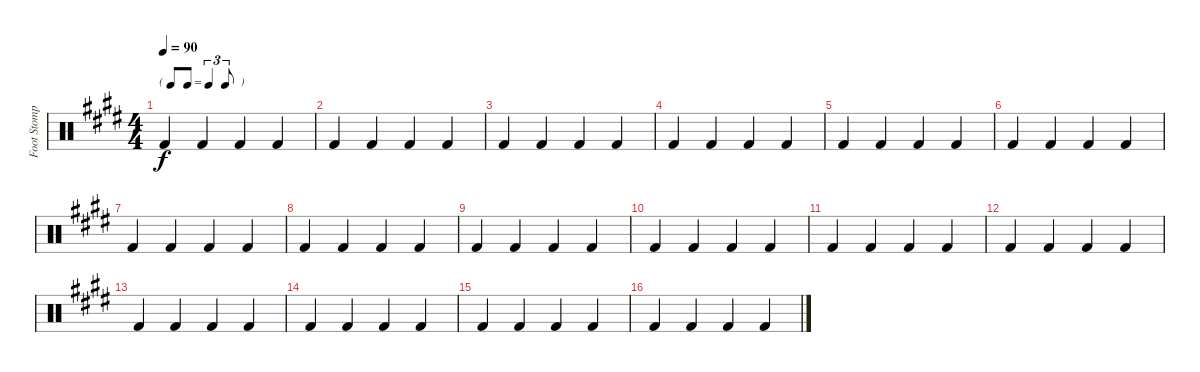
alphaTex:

\track ("Foot Stomp" "Foot Stomp") {instrument percussion}
\staff {score}
\articulation defaults
\ts (4 4)
\tf triplet8th
\tempo 90
\clef neutral
\ks e "Kick (hit) 2".4{dy f} "Kick (hit) 2".4 "Kick (hit) 2".4 "Kick (hit) 2".4
|
"Kick (hit) 2".4 "Kick (hit) 2".4 "Kick (hit) 2".4 "Kick (hit) 2".4 |
"Kick (hit) 2".4 "Kick (hit) 2".4 "Kick (hit) 2".4 "Kick (hit) 2".4 |
"Kick (hit) 2".4 "Kick (hit) 2".4 "Kick (hit) 2".4 "Kick (hit) 2".4 |
"Kick (hit) 2".4 "Kick (hit) 2".4 "Kick (hit) 2".4 "Kick (hit) 2".4 |
"Kick (hit) 2".4 "Kick (hit) 2".4 "Kick (hit) 2".4 "Kick (hit) 2".4 |
"Kick (hit) 2".4 "Kick (hit) 2".4 "Kick (hit) 2".4 "Kick (hit) 2".4 |
"Kick (hit) 2".4 "Kick (hit) 2".4 "Kick (hit) 2".4 "Kick (hit) 2".4 |
"Kick (hit) 2".4 "Kick (hit) 2".4 "Kick (hit) 2".4 "Kick (hit) 2".4 |
"Kick (hit) 2".4 "Kick (hit) 2".4 "Kick (hit) 2".4 "Kick (hit) 2".4 |
"Kick (hit) 2".4 "Kick (hit) 2".4 "Kick (hit) 2".4 "Kick (hit) 2".4 |
"Kick (hit) 2".4 "Kick (hit) 2".4 "Kick (hit) 2".4 "Kick (hit) 2".4 |
"Kick (hit) 2".4 "Kick (hit) 2".4 "Kick (hit) 2".4 "Kick (hit) 2".4 |
"Kick (hit) 2".4 "Kick (hit) 2".4 "Kick (hit) 2".4 "Kick (hit) 2".4 |
"Kick (hit) 2".4 "Kick (hit) 2".4 "Kick (hit) 2".4 "Kick (hit) 2".4 |
"Kick (hit) 2".4 "Kick (hit) 2".4 "Kick (hit) 2".4 "Kick (hit) 2".4
